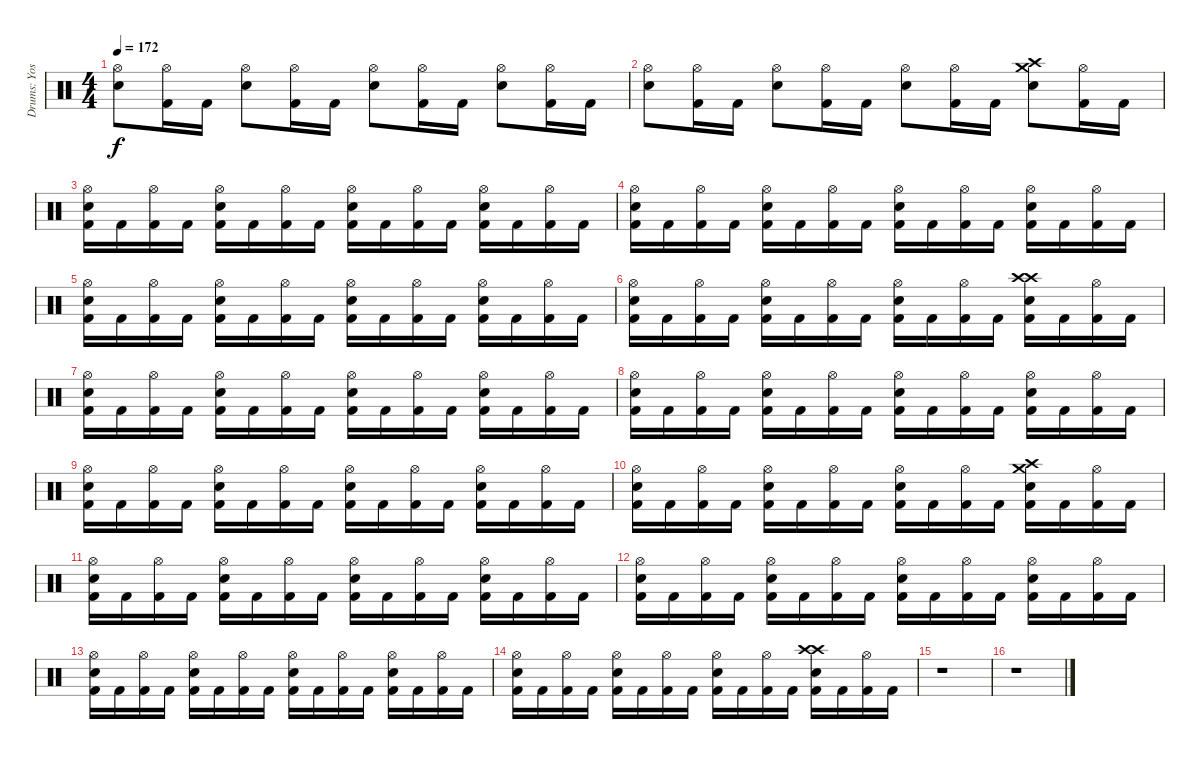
\track ("Drums: Yoshiki" "Drums: Yos") {instrument percussion}
\staff {score}
\articulation defaults
\ts (4 4)
\tempo 172
\clef neutral
\ks c
("Hi-Hat (open)" "Snare (hit) 2").8{dy f} ("Hi-Hat (open)" "Kick (hit) 2").16 "Kick (hit) 2".16 ("Hi-Hat (open)" "Snare (hit) 2").8 ("Hi-Hat (open)" "Kick (hit) 2").16 "Kick (hit) 2".16 ("Hi-Hat (open)" "Snare (hit) 2").8 ("Hi-Hat (open)" "Kick (hit) 2").16 "Kick (hit) 2".16 ("Hi-Hat (open)" "Snare (hit) 2").8 ("Hi-Hat (open)" "Kick (hit) 2").16 "Kick (hit) 2".16 |
("Hi-Hat (open)" "Snare (hit) 2").8 ("Hi-Hat (open)" "Kick (hit) 2").16 "Kick (hit) 2".16 ("Hi-Hat (open)" "Snare (hit) 2").8 ("Hi-Hat (open)" "Kick (hit) 2").16 "Kick (hit) 2".16 ("Hi-Hat (open)" "Snare (hit) 2").8 ("Hi-Hat (open)" "Kick (hit) 2").16 "Kick (hit) 2".16 ("Crash high (hit)" "Crash medium (hit)" "Snare (hit) 2").8 ("Hi-Hat (open)" "Kick (hit) 2").16 "Kick (hit) 2".16 |
("Hi-Hat (open)" "Snare (hit) 2" "Kick (hit) 2").16 "Kick (hit) 2".16 ("Hi-Hat (open)" "Kick (hit) 2").16 "Kick (hit) 2".16 ("Hi-Hat (open)" "Snare (hit) 2" "Kick (hit) 2").16 "Kick (hit) 2".16 ("Hi-Hat (open)" "Kick (hit) 2").16 "Kick (hit) 2".16 ("Hi-Hat (open)" "Snare (hit) 2" "Kick (hit) 2").16 "Kick (hit) 2".16 ("Hi-Hat (open)" "Kick (hit) 2").16 "Kick (hit) 2".16 ("Hi-Hat (open)" "Snare (hit) 2" "Kick (hit) 2").16 "Kick (hit) 2".16 ("Hi-Hat (open)" "Kick (hit) 2").16 "Kick (hit) 2".16 |
("Hi-Hat (open)" "Snare (hit) 2" "Kick (hit) 2").16 "Kick (hit) 2".16 ("Hi-Hat (open)" "Kick (hit) 2").16 "Kick (hit) 2".16 ("Hi-Hat (open)" "Snare (hit) 2" "Kick (hit) 2").16 "Kick (hit) 2".16 ("Hi-Hat (open)" "Kick (hit) 2").16 "Kick (hit) 2".16 ("Hi-Hat (open)" "Snare (hit) 2" "Kick (hit) 2").16 "Kick (hit) 2".16 ("Hi-Hat (open)" "Kick (hit) 2").16 "Kick (hit) 2".16 ("Hi-Hat (open)" "Snare (hit) 2" "Kick (hit) 2").16 "Kick (hit) 2".16 ("Hi-Hat (open)" "Kick (hit) 2").16 "Kick (hit) 2".16 |
("Hi-Hat (open)" "Snare (hit) 2" "Kick (hit) 2").16 "Kick (hit) 2".16 ("Hi-Hat (open)" "Kick (hit) 2").16 "Kick (hit) 2".16 ("Hi-Hat (open)" "Snare (hit) 2" "Kick (hit) 2").16 "Kick (hit) 2".16 ("Hi-Hat (open)" "Kick (hit) 2").16 "Kick (hit) 2".16 ("Hi-Hat (open)" "Snare (hit) 2" "Kick (hit) 2").16 "Kick (hit) 2".16 ("Hi-Hat (open)" "Kick (hit) 2").16 "Kick (hit) 2".16 ("Hi-Hat (open)" "Snare (hit) 2" "Kick (hit) 2").16 "Kick (hit) 2".16 ("Hi-Hat (open)" "Kick (hit) 2").16 "Kick (hit) 2".16 |
("Hi-Hat (open)" "Snare (hit) 2" "Kick (hit) 2").16 "Kick (hit) 2".16 ("Hi-Hat (open)" "Kick (hit) 2").16 "Kick (hit) 2".16 ("Hi-Hat (open)" "Snare (hit) 2" "Kick (hit) 2").16 "Kick (hit) 2".16 ("Hi-Hat (open)" "Kick (hit) 2").16 "Kick (hit) 2".16 ("Hi-Hat (open)" "Snare (hit) 2" "Kick (hit) 2").16 "Kick (hit) 2".16 ("Hi-Hat (open)" "Kick (hit) 2").16 "Kick (hit) 2".16 ("Crash high (hit)" "Crash high (hit)" "Snare (hit) 2" "Kick (hit) 2").16 "Kick (hit) 2".16 ("Hi-Hat (open)" "Kick (hit) 2").16 "Kick (hit) 2".16 |
("Hi-Hat (open)" "Snare (hit) 2" "Kick (hit) 2").16 "Kick (hit) 2".16 ("Hi-Hat (open)" "Kick (hit) 2").16 "Kick (hit) 2".16 ("Hi-Hat (open)" "Snare (hit) 2" "Kick (hit) 2").16 "Kick (hit) 2".16 ("Hi-Hat (open)" "Kick (hit) 2").16 "Kick (hit) 2".16 ("Hi-Hat (open)" "Snare (hit) 2" "Kick (hit) 2").16 "Kick (hit) 2".16 ("Hi-Hat (open)" "Kick (hit) 2").16 "Kick (hit) 2".16 ("Hi-Hat (open)" "Snare (hit) 2" "Kick (hit) 2").16 "Kick (hit) 2".16 ("Hi-Hat (open)" "Kick (hit) 2").16 "Kick (hit) 2".16 |
("Hi-Hat (open)" "Snare (hit) 2" "Kick (hit) 2").16 "Kick (hit) 2".16 ("Hi-Hat (open)" "Kick (hit) 2").16 "Kick (hit) 2".16 ("Hi-Hat (open)" "Snare (hit) 2" "Kick (hit) 2").16 "Kick (hit) 2".16 ("Hi-Hat (open)" "Kick (hit) 2").16 "Kick (hit) 2".16 ("Hi-Hat (open)" "Snare (hit) 2" "Kick (hit) 2").16 "Kick (hit) 2".16 ("Hi-Hat (open)" "Kick (hit) 2").16 "Kick (hit) 2".16 ("Hi-Hat (open)" "Snare (hit) 2" "Kick (hit) 2").16 "Kick (hit) 2".16 ("Hi-Hat (open)" "Kick (hit) 2").16 "Kick (hit) 2".16 |
("Hi-Hat (open)" "Snare (hit) 2" "Kick (hit) 2").16 "Kick (hit) 2".16 ("Hi-Hat (open)" "Kick (hit) 2").16 "Kick (hit) 2".16 ("Hi-Hat (open)" "Snare (hit) 2" "Kick (hit) 2").16 "Kick (hit) 2".16 ("Hi-Hat (open)" "Kick (hit) 2").16 "Kick (hit) 2".16 ("Hi-Hat (open)" "Snare (hit) 2" "Kick (hit) 2").16 "Kick (hit) 2".16 ("Hi-Hat (open)" "Kick (hit) 2").16 "Kick (hit) 2".16 ("Hi-Hat (open)" "Snare (hit) 2" "Kick (hit) 2").16 "Kick (hit) 2".16 ("Hi-Hat (open)" "Kick (hit) 2").16 "Kick (hit) 2".16 |
("Hi-Hat (open)" "Snare (hit) 2" "Kick (hit) 2").16 "Kick (hit) 2".16 ("Hi-Hat (open)" "Kick (hit) 2").16 "Kick (hit) 2".16 ("Hi-Hat (open)" "Snare (hit) 2" "Kick (hit) 2").16 "Kick (hit) 2".16 ("Hi-Hat (open)" "Kick (hit) 2").16 "Kick (hit) 2".16 ("Hi-Hat (open)" "Snare (hit) 2" "Kick (hit) 2").16 "Kick (hit) 2".16 ("Hi-Hat (open)" "Kick (hit) 2").16 "Kick (hit) 2".16 ("Crash high (hit)" "Crash medium (hit)" "Snare (hit) 2" "Kick (hit) 2").16 "Kick (hit) 2".16 ("Hi-Hat (open)" "Kick (hit) 2").16 "Kick (hit) 2".16 |
("Hi-Hat (open)" "Snare (hit) 2" "Kick (hit) 2").16{volume 0} "Kick (hit) 2".16 ("Hi-Hat (open)" "Kick (hit) 2").16 "Kick (hit) 2".16 ("Hi-Hat (open)" "Snare (hit) 2" "Kick (hit) 2").16 "Kick (hit) 2".16 ("Hi-Hat (open)" "Kick (hit) 2").16 "Kick (hit) 2".16 ("Hi-Hat (open)" "Snare (hit) 2" "Kick (hit) 2").16 "Kick (hit) 2".16 ("Hi-Hat (open)" "Kick (hit) 2").16 "Kick (hit) 2".16 ("Hi-Hat (open)" "Snare (hit) 2" "Kick (hit) 2").16 "Kick (hit) 2".16 ("Hi-Hat (open)" "Kick (hit) 2").16 "Kick (hit) 2".16 |
("Hi-Hat (open)" "Snare (hit) 2" "Kick (hit) 2").16 "Kick (hit) 2".16 ("Hi-Hat (open)" "Kick (hit) 2").16 "Kick (hit) 2".16 ("Hi-Hat (open)" "Snare (hit) 2" "Kick (hit) 2").16 "Kick (hit) 2".16 ("Hi-Hat (open)" "Kick (hit) 2").16 "Kick (hit) 2".16 ("Hi-Hat (open)" "Snare (hit) 2" "Kick (hit) 2").16 "Kick (hit) 2".16 ("Hi-Hat (open)" "Kick (hit) 2").16 "Kick (hit) 2".16 ("Hi-Hat (open)" "Snare (hit) 2" "Kick (hit) 2").16 "Kick (hit) 2".16 ("Hi-Hat (open)" "Kick (hit) 2").16 "Kick (hit) 2".16 |
("Hi-Hat (open)" "Snare (hit) 2" "Kick (hit) 2").16 "Kick (hit) 2".16 ("Hi-Hat (open)" "Kick (hit) 2").16 "Kick (hit) 2".16 ("Hi-Hat (open)" "Snare (hit) 2" "Kick (hit) 2").16 "Kick (hit) 2".16 ("Hi-Hat (open)" "Kick (hit) 2").16 "Kick (hit) 2".16 ("Hi-Hat (open)" "Snare (hit) 2" "Kick (hit) 2").16 "Kick (hit) 2".16 ("Hi-Hat (open)" "Kick (hit) 2").16 "Kick (hit) 2".16 ("Hi-Hat (open)" "Snare (hit) 2" "Kick (hit) 2").16 "Kick (hit) 2".16 ("Hi-Hat (open)" "Kick (hit) 2").16 "Kick (hit) 2".16 |
("Hi-Hat (open)" "Snare (hit) 2" "Kick (hit) 2").16 "Kick (hit) 2".16 ("Hi-Hat (open)" "Kick (hit) 2").16 "Kick (hit) 2".16 ("Hi-Hat (open)" "Snare (hit) 2" "Kick (hit) 2").16 "Kick (hit) 2".16 ("Hi-Hat (open)" "Kick (hit) 2").16 "Kick (hit) 2".16 ("Hi-Hat (open)" "Snare (hit) 2" "Kick (hit) 2").16 "Kick (hit) 2".16 ("Hi-Hat (open)" "Kick (hit) 2").16 "Kick (hit) 2".16 ("Crash high (hit)" "Crash high (hit)" "Snare (hit) 2" "Kick (hit) 2").16 "Kick (hit) 2".16 ("Hi-Hat (open)" "Kick (hit) 2").16 "Kick (hit) 2".16 |
r.1 |
r.1
